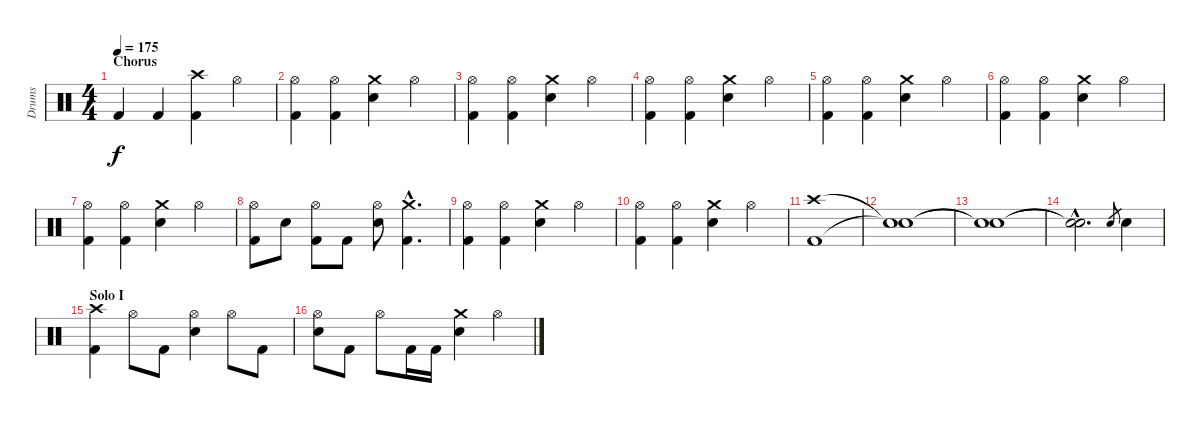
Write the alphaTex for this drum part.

\track ("Drums" "Drums") {instrument percussion}
\staff {score}
\articulation defaults
\ts (4 4)
\section ("" "Chorus")
\tempo 175
\clef neutral
\ks c "Kick (hit) 2".4{dy f} "Kick (hit) 2".4
("Crash high (hit)" "Kick (hit) 2").4 "Hi-Hat (open)".4 |
("Hi-Hat (open)" "Kick (hit) 2").4 ("Hi-Hat (open)" "Kick (hit) 2").4 ("Crash medium (hit)" "Snare (hit) 2").4 "Hi-Hat (open)".4 |
("Hi-Hat (open)" "Kick (hit) 2").4 ("Hi-Hat (open)" "Kick (hit) 2").4 ("Crash medium (hit)" "Snare (hit) 2").4 "Hi-Hat (open)".4 |
("Hi-Hat (open)" "Kick (hit) 2").4 ("Hi-Hat (open)" "Kick (hit) 2").4 ("Crash medium (hit)" "Snare (hit) 2").4 "Hi-Hat (open)".4 |
("Hi-Hat (open)" "Kick (hit) 2").4 ("Hi-Hat (open)" "Kick (hit) 2").4 ("Crash medium (hit)" "Snare (hit) 2").4 "Hi-Hat (open)".4 |
("Hi-Hat (open)" "Kick (hit) 2").4 ("Hi-Hat (open)" "Kick (hit) 2").4 ("Crash medium (hit)" "Snare (hit) 2").4 "Hi-Hat (open)".4 |
("Hi-Hat (open)" "Kick (hit) 2").4 ("Hi-Hat (open)" "Kick (hit) 2").4 ("Crash medium (hit)" "Snare (hit) 2").4 "Hi-Hat (open)".4 |
("Hi-Hat (open)" "Kick (hit) 2").8 "Snare (hit) 2".8 ("Hi-Hat (open)" "Kick (hit) 2").8 "Kick (hit) 2".8 ("Hi-Hat (open)" "Snare (hit) 2").8 ("Crash medium (hit)"{hac} "Kick (hit) 2"{hac}).4{d} |
("Hi-Hat (open)" "Kick (hit) 2").4 ("Hi-Hat (open)" "Kick (hit) 2").4 ("Crash medium (hit)" "Snare (hit) 2").4 "Hi-Hat (open)".4 |
("Hi-Hat (open)" "Kick (hit) 2").4 ("Hi-Hat (open)" "Kick (hit) 2").4 ("Crash medium (hit)" "Snare (hit) 2").4 "Hi-Hat (open)".4 |
("Crash high (hit)" "Kick (hit) 2").1 |
("Snare (hit)"{t} "Snare (hit)"{t}).1 |
("Snare (hit)"{t} "Snare (hit)"{t}).1 |
("Snare (hit)"{hac t} "Snare (hit)"{hac t}).2{d} "Snare (hit) 2".8{gr} "Snare (hit) 2".4 |
\section ("" "Solo I")
("Crash high (hit)" "Kick (hit) 2").4 "Hi-Hat (open)".8 "Kick (hit) 2".8 ("Hi-Hat (open)" "Snare (hit) 2").4 "Hi-Hat (open)".8 "Kick (hit) 2".8 |
("Hi-Hat (open)" "Snare (hit) 2").8 "Kick (hit) 2".8 "Hi-Hat (open)".8 "Kick (hit) 2".16 "Kick (hit) 2".16 ("Crash medium (hit)" "Snare (hit) 2").4 "Hi-Hat (open)".4
